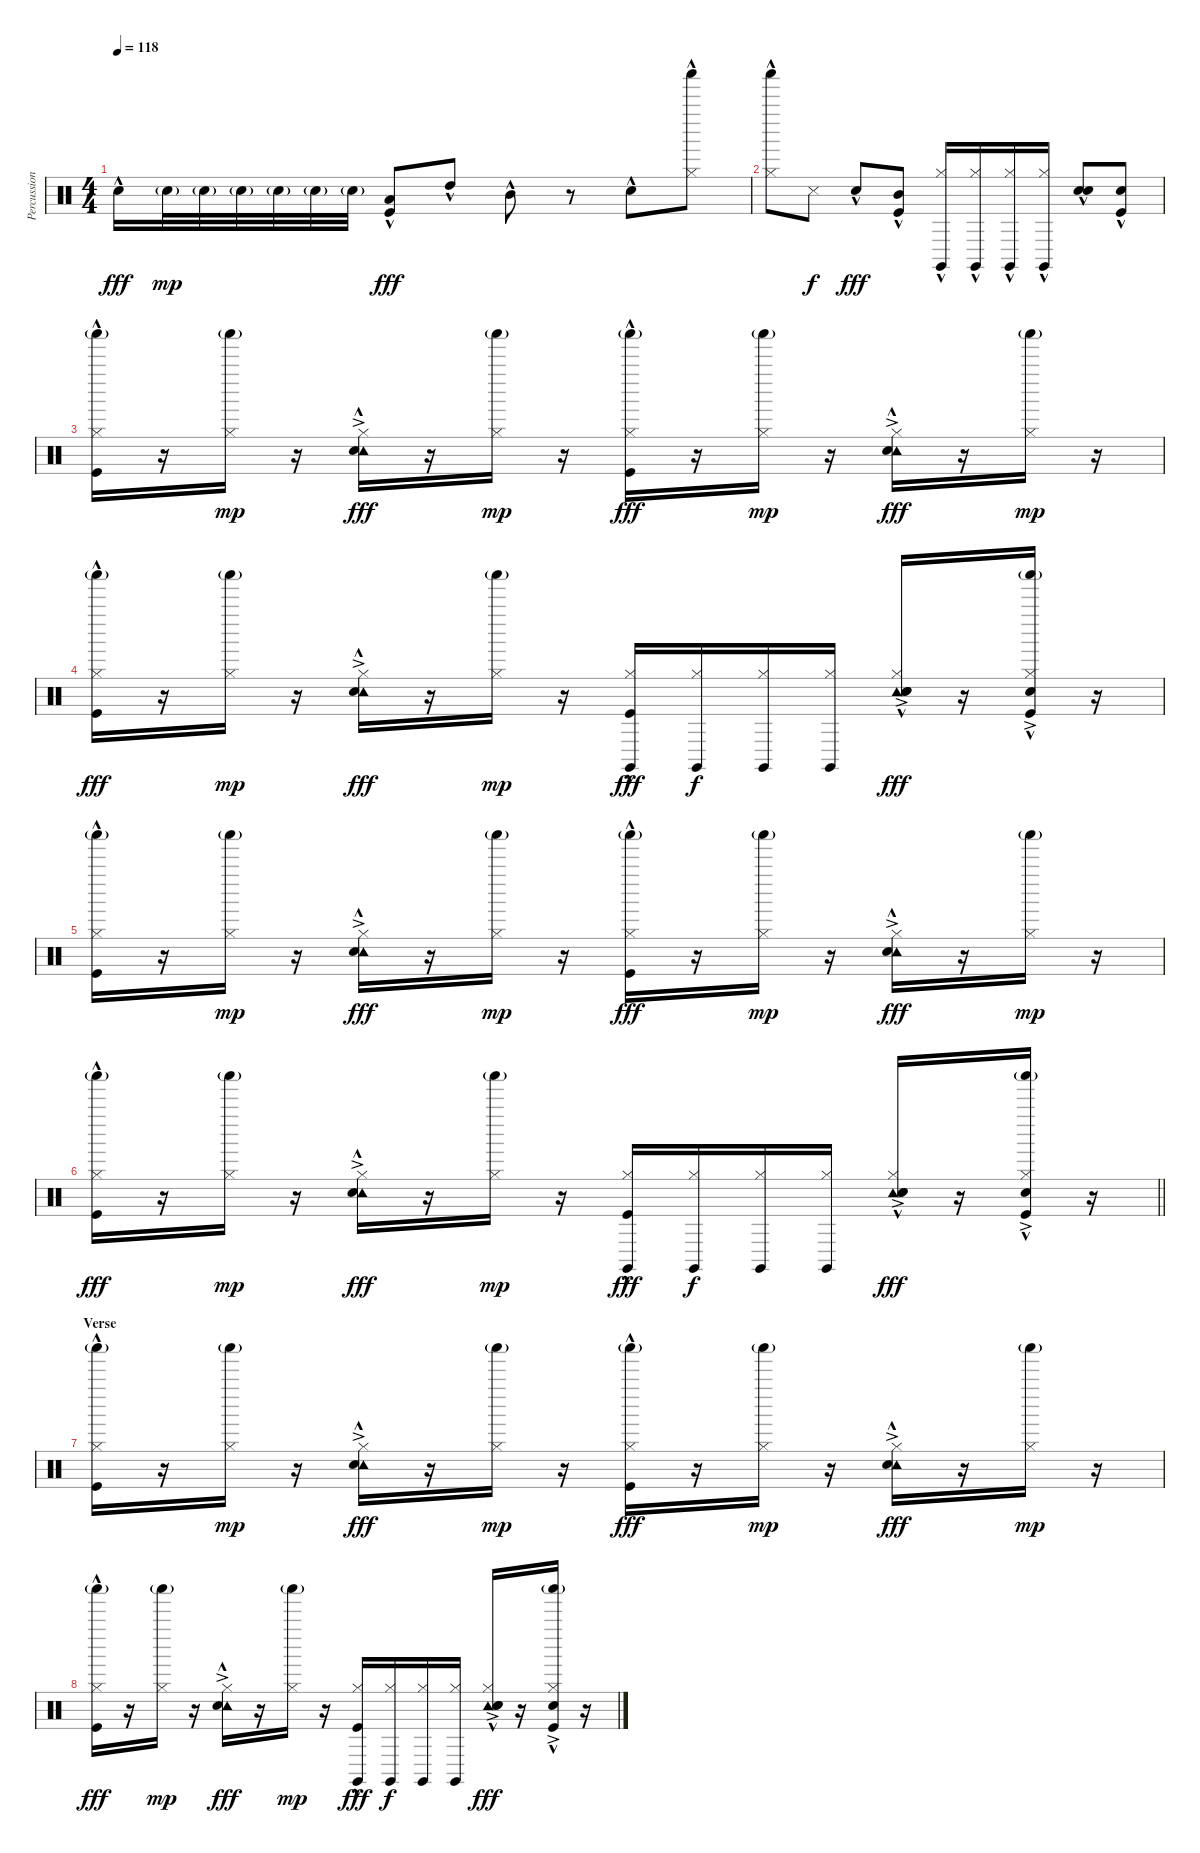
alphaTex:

\track ("Percussion" "Percussion") {instrument percussion}
\staff {score}
\articulation defaults
\ts (4 4)
\tempo 118
\clef neutral
\ks c "Snare (hit) 2"{hac}.16{dy fff} "Snare (hit) 2"{g}.32{dy mp} "Snare (hit) 2"{g}.32 "Snare (hit) 2"{g}.32 "Snare (hit) 2"{g}.32 "Snare (hit) 2"{g}.32 "Snare (hit) 2"{g}.32
("Low Tom (hit)"{hac} "Kick (hit)"{hac}).8{dy fff} "High Tom (hit)"{hac}.8 "Mid Tom (hit)"{hac}.8 r.8 "Snare (hit) 2"{hac}.8 ("Shaker (hit)"{hac} "Hi-Hat (closed)"{hac}).8 |
("Shaker (hit)"{hac} "Hi-Hat (closed)"{hac}).8 "Snare (side stick) 3".8{dy f} "Snare (hit) 2"{hac}.8{dy fff} ("Mid Tom (hit)"{hac} "Kick (hit)"{hac}).8 ("Claves (hit)"{hac} "Hi-Hat (closed)"{hac}).16 ("Claves (hit)"{hac} "Hi-Hat (closed)"{hac}).16 ("Claves (hit)"{hac} "Hi-Hat (closed)"{hac}).16 ("Claves (hit)"{hac} "Hi-Hat (closed)"{hac}).16 ("Hand Clap (hit)"{hac} "Snare (hit) 2"{hac}).8 ("Hand Clap (hit)"{hac} "Kick (hit)"{hac}).8 |
("Shaker (hit)"{g} "Hi-Hat (closed)" "Kick (hit)"{hac}).16 r.16 ("Shaker (hit)"{g} "Hi-Hat (closed)").16{dy mp} r.16 ("Tambourine (hit)"{ac} "Hi-Hat (closed)" "Snare (hit) 2"{hac}).16{dy fff} r.16 ("Shaker (hit)"{g} "Hi-Hat (closed)").16{dy mp} r.16 ("Shaker (hit)"{g} "Hi-Hat (closed)" "Kick (hit)"{hac}).16{dy fff} r.16 ("Shaker (hit)"{g} "Hi-Hat (closed)").16{dy mp} r.16 ("Tambourine (hit)"{ac} "Hi-Hat (closed)" "Snare (hit) 2"{hac}).16{dy fff} r.16 ("Shaker (hit)"{g} "Hi-Hat (closed)").16{dy mp} r.16 |
("Shaker (hit)"{g} "Hi-Hat (closed)" "Kick (hit)"{hac}).16{dy fff} r.16 ("Shaker (hit)"{g} "Hi-Hat (closed)").16{dy mp} r.16 ("Tambourine (hit)"{ac} "Hi-Hat (closed)" "Snare (hit) 2"{hac}).16{dy fff} r.16 ("Shaker (hit)"{g} "Hi-Hat (closed)").16{dy mp} r.16 ("Claves (hit)" "Hi-Hat (closed)" "Kick (hit)"{hac}).16{dy fff} ("Claves (hit)" "Hi-Hat (closed)").16{dy f} ("Claves (hit)" "Hi-Hat (closed)").16 ("Claves (hit)" "Hi-Hat (closed)").16 ("Tambourine (hit)"{ac} "Hi-Hat (closed)" "Hand Clap (hit)"{ac} "Snare (hit) 2"{hac}).16{dy fff} r.16 ("Shaker (hit)"{g} "Hi-Hat (closed)" "Hand Clap (hit)"{ac} "Kick (hit)"{hac}).16 r.16 |
("Shaker (hit)"{g} "Hi-Hat (closed)" "Kick (hit)"{hac}).16 r.16 ("Shaker (hit)"{g} "Hi-Hat (closed)").16{dy mp} r.16 ("Tambourine (hit)"{ac} "Hi-Hat (closed)" "Snare (hit) 2"{hac}).16{dy fff} r.16 ("Shaker (hit)"{g} "Hi-Hat (closed)").16{dy mp} r.16 ("Shaker (hit)"{g} "Hi-Hat (closed)" "Kick (hit)"{hac}).16{dy fff} r.16 ("Shaker (hit)"{g} "Hi-Hat (closed)").16{dy mp} r.16 ("Tambourine (hit)"{ac} "Hi-Hat (closed)" "Snare (hit) 2"{hac}).16{dy fff} r.16 ("Shaker (hit)"{g} "Hi-Hat (closed)").16{dy mp} r.16 |
\barLineRight lightlight
("Shaker (hit)"{g} "Hi-Hat (closed)" "Kick (hit)"{hac}).16{dy fff} r.16 ("Shaker (hit)"{g} "Hi-Hat (closed)").16{dy mp} r.16 ("Tambourine (hit)"{ac} "Hi-Hat (closed)" "Snare (hit) 2"{hac}).16{dy fff} r.16 ("Shaker (hit)"{g} "Hi-Hat (closed)").16{dy mp} r.16 ("Claves (hit)" "Hi-Hat (closed)" "Kick (hit)"{hac}).16{dy fff} ("Claves (hit)" "Hi-Hat (closed)").16{dy f} ("Claves (hit)" "Hi-Hat (closed)").16 ("Claves (hit)" "Hi-Hat (closed)").16 ("Tambourine (hit)"{ac} "Hi-Hat (closed)" "Hand Clap (hit)"{ac} "Snare (hit) 2"{hac}).16{dy fff} r.16 ("Shaker (hit)"{g} "Hi-Hat (closed)" "Hand Clap (hit)"{ac} "Kick (hit)"{hac}).16 r.16 |
\section ("" "Verse")
("Shaker (hit)"{g} "Hi-Hat (closed)" "Kick (hit)"{hac}).16 r.16 ("Shaker (hit)"{g} "Hi-Hat (closed)").16{dy mp} r.16 ("Tambourine (hit)"{ac} "Hi-Hat (closed)" "Snare (hit) 2"{hac}).16{dy fff} r.16 ("Shaker (hit)"{g} "Hi-Hat (closed)").16{dy mp} r.16 ("Shaker (hit)"{g} "Hi-Hat (closed)" "Kick (hit)"{hac}).16{dy fff} r.16 ("Shaker (hit)"{g} "Hi-Hat (closed)").16{dy mp} r.16 ("Tambourine (hit)"{ac} "Hi-Hat (closed)" "Snare (hit) 2"{hac}).16{dy fff} r.16 ("Shaker (hit)"{g} "Hi-Hat (closed)").16{dy mp} r.16 |
("Shaker (hit)"{g} "Hi-Hat (closed)" "Kick (hit)"{hac}).16{dy fff} r.16 ("Shaker (hit)"{g} "Hi-Hat (closed)").16{dy mp} r.16 ("Tambourine (hit)"{ac} "Hi-Hat (closed)" "Snare (hit) 2"{hac}).16{dy fff} r.16 ("Shaker (hit)"{g} "Hi-Hat (closed)").16{dy mp} r.16 ("Claves (hit)" "Hi-Hat (closed)" "Kick (hit)"{hac}).16{dy fff} ("Claves (hit)" "Hi-Hat (closed)").16{dy f} ("Claves (hit)" "Hi-Hat (closed)").16 ("Claves (hit)" "Hi-Hat (closed)").16 ("Tambourine (hit)"{ac} "Hi-Hat (closed)" "Hand Clap (hit)"{ac} "Snare (hit) 2"{hac}).16{dy fff} r.16 ("Shaker (hit)"{g} "Hi-Hat (closed)" "Hand Clap (hit)"{ac} "Kick (hit)"{hac}).16 r.16
